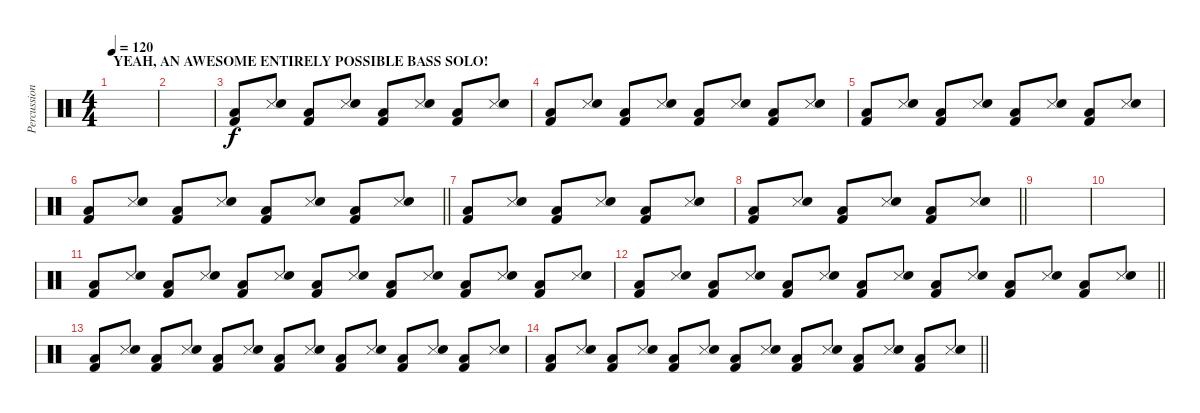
\track ("Percussion" "Percussion") {instrument percussion}
\staff {score}
\articulation defaults
\ts (4 4)
\section ("" "YEAH, AN AWESOME ENTIRELY POSSIBLE BASS SOLO!")
\tempo 120
\clef neutral
\ks c
|
|
("Low Tom (hit)" "Kick (hit) 2").8 ("Snare (side stick) 3" "Electric Snare (hit)").8 ("Low Tom (hit)" "Kick (hit) 2").8 ("Snare (side stick) 3" "Electric Snare (hit)").8 ("Low Tom (hit)" "Kick (hit) 2").8 ("Snare (side stick) 3" "Electric Snare (hit)").8 ("Low Tom (hit)" "Kick (hit) 2").8 ("Snare (side stick) 3" "Electric Snare (hit)").8 |
("Low Tom (hit)" "Kick (hit) 2").8 ("Snare (side stick) 3" "Electric Snare (hit)").8 ("Low Tom (hit)" "Kick (hit) 2").8 ("Snare (side stick) 3" "Electric Snare (hit)").8 ("Low Tom (hit)" "Kick (hit) 2").8 ("Snare (side stick) 3" "Electric Snare (hit)").8 ("Low Tom (hit)" "Kick (hit) 2").8 ("Snare (side stick) 3" "Electric Snare (hit)").8 |
("Low Tom (hit)" "Kick (hit) 2").8 ("Snare (side stick) 3" "Electric Snare (hit)").8 ("Low Tom (hit)" "Kick (hit) 2").8 ("Snare (side stick) 3" "Electric Snare (hit)").8 ("Low Tom (hit)" "Kick (hit) 2").8 ("Snare (side stick) 3" "Electric Snare (hit)").8 ("Low Tom (hit)" "Kick (hit) 2").8 ("Snare (side stick) 3" "Electric Snare (hit)").8 |
\barLineRight lightlight
("Low Tom (hit)" "Kick (hit) 2").8 ("Snare (side stick) 3" "Electric Snare (hit)").8 ("Low Tom (hit)" "Kick (hit) 2").8 ("Snare (side stick) 3" "Electric Snare (hit)").8 ("Low Tom (hit)" "Kick (hit) 2").8 ("Snare (side stick) 3" "Electric Snare (hit)").8 ("Low Tom (hit)" "Kick (hit) 2").8 ("Snare (side stick) 3" "Electric Snare (hit)").8 |
("Low Tom (hit)" "Kick (hit) 2").8 ("Snare (side stick) 3" "Electric Snare (hit)").8 ("Low Tom (hit)" "Kick (hit) 2").8 ("Snare (side stick) 3" "Electric Snare (hit)").8 ("Low Tom (hit)" "Kick (hit) 2").8 ("Snare (side stick) 3" "Electric Snare (hit)").8 |
\barLineRight lightlight
("Low Tom (hit)" "Kick (hit) 2").8 ("Snare (side stick) 3" "Electric Snare (hit)").8 ("Low Tom (hit)" "Kick (hit) 2").8 ("Snare (side stick) 3" "Electric Snare (hit)").8 ("Low Tom (hit)" "Kick (hit) 2").8 ("Snare (side stick) 3" "Electric Snare (hit)").8 |
|
|
("Low Tom (hit)" "Kick (hit) 2").8 ("Snare (side stick) 3" "Electric Snare (hit)").8 ("Low Tom (hit)" "Kick (hit) 2").8 ("Snare (side stick) 3" "Electric Snare (hit)").8 ("Low Tom (hit)" "Kick (hit) 2").8 ("Snare (side stick) 3" "Electric Snare (hit)").8 ("Low Tom (hit)" "Kick (hit) 2").8 ("Snare (side stick) 3" "Electric Snare (hit)").8 ("Low Tom (hit)" "Kick (hit) 2").8 ("Snare (side stick) 3" "Electric Snare (hit)").8 ("Low Tom (hit)" "Kick (hit) 2").8 ("Snare (side stick) 3" "Electric Snare (hit)").8 ("Low Tom (hit)" "Kick (hit) 2").8 ("Snare (side stick) 3" "Electric Snare (hit)").8 |
\barLineRight lightlight
("Low Tom (hit)" "Kick (hit) 2").8 ("Snare (side stick) 3" "Electric Snare (hit)").8 ("Low Tom (hit)" "Kick (hit) 2").8 ("Snare (side stick) 3" "Electric Snare (hit)").8 ("Low Tom (hit)" "Kick (hit) 2").8 ("Snare (side stick) 3" "Electric Snare (hit)").8 ("Low Tom (hit)" "Kick (hit) 2").8 ("Snare (side stick) 3" "Electric Snare (hit)").8 ("Low Tom (hit)" "Kick (hit) 2").8 ("Snare (side stick) 3" "Electric Snare (hit)").8 ("Low Tom (hit)" "Kick (hit) 2").8 ("Snare (side stick) 3" "Electric Snare (hit)").8 ("Low Tom (hit)" "Kick (hit) 2").8 ("Snare (side stick) 3" "Electric Snare (hit)").8 |
("Low Tom (hit)" "Kick (hit) 2").8 ("Snare (side stick) 3" "Electric Snare (hit)").8 ("Low Tom (hit)" "Kick (hit) 2").8 ("Snare (side stick) 3" "Electric Snare (hit)").8 ("Low Tom (hit)" "Kick (hit) 2").8 ("Snare (side stick) 3" "Electric Snare (hit)").8 ("Low Tom (hit)" "Kick (hit) 2").8 ("Snare (side stick) 3" "Electric Snare (hit)").8 ("Low Tom (hit)" "Kick (hit) 2").8 ("Snare (side stick) 3" "Electric Snare (hit)").8 ("Low Tom (hit)" "Kick (hit) 2").8 ("Snare (side stick) 3" "Electric Snare (hit)").8 ("Low Tom (hit)" "Kick (hit) 2").8 ("Snare (side stick) 3" "Electric Snare (hit)").8 |
\barLineRight lightlight
("Low Tom (hit)" "Kick (hit) 2").8 ("Snare (side stick) 3" "Electric Snare (hit)").8 ("Low Tom (hit)" "Kick (hit) 2").8 ("Snare (side stick) 3" "Electric Snare (hit)").8 ("Low Tom (hit)" "Kick (hit) 2").8 ("Snare (side stick) 3" "Electric Snare (hit)").8 ("Low Tom (hit)" "Kick (hit) 2").8 ("Snare (side stick) 3" "Electric Snare (hit)").8 ("Low Tom (hit)" "Kick (hit) 2").8 ("Snare (side stick) 3" "Electric Snare (hit)").8 ("Low Tom (hit)" "Kick (hit) 2").8 ("Snare (side stick) 3" "Electric Snare (hit)").8 ("Low Tom (hit)" "Kick (hit) 2").8 ("Snare (side stick) 3" "Electric Snare (hit)").8
